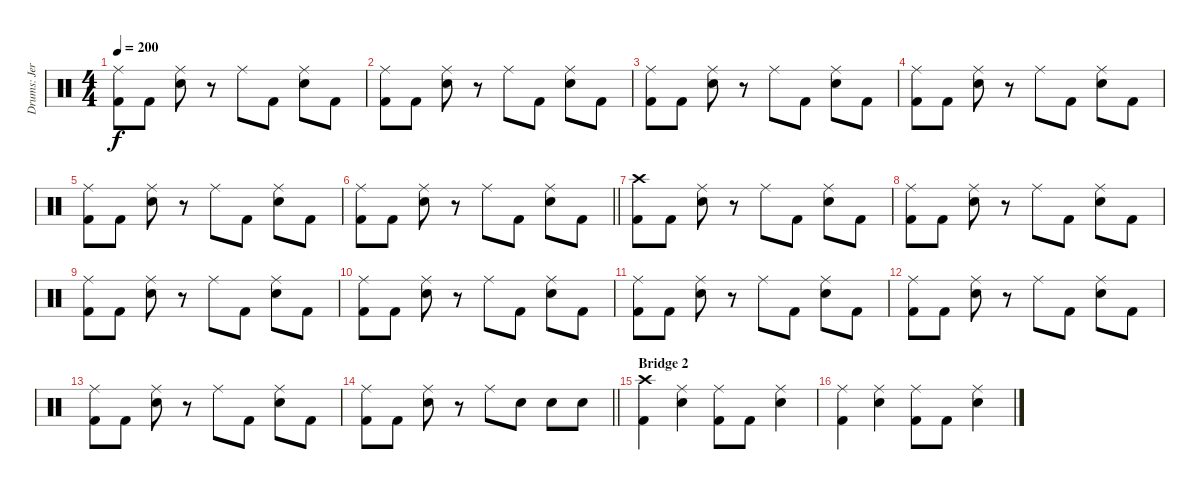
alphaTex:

\track ("Drums: Jere Luokkamäki" "Drums: Jer") {instrument percussion}
\staff {score}
\articulation defaults
\ts (4 4)
\tempo 200
\clef neutral
\ks aminor
("Ride (middle)" "Kick (hit) 2").8{dy f} "Kick (hit) 2".8 ("Ride (middle)" "Electric Snare (hit)").8 r.8 "Ride (middle)".8 "Kick (hit) 2".8 ("Ride (middle)" "Electric Snare (hit)").8 "Kick (hit) 2".8 |
("Ride (middle)" "Kick (hit) 2").8 "Kick (hit) 2".8 ("Ride (middle)" "Electric Snare (hit)").8 r.8 "Ride (middle)".8 "Kick (hit) 2".8 ("Ride (middle)" "Electric Snare (hit)").8 "Kick (hit) 2".8 |
("Ride (middle)" "Kick (hit) 2").8 "Kick (hit) 2".8 ("Ride (middle)" "Electric Snare (hit)").8 r.8 "Ride (middle)".8 "Kick (hit) 2".8 ("Ride (middle)" "Electric Snare (hit)").8 "Kick (hit) 2".8 |
("Ride (middle)" "Kick (hit) 2").8 "Kick (hit) 2".8 ("Ride (middle)" "Electric Snare (hit)").8 r.8 "Ride (middle)".8 "Kick (hit) 2".8 ("Ride (middle)" "Electric Snare (hit)").8 "Kick (hit) 2".8 |
("Ride (middle)" "Kick (hit) 2").8 "Kick (hit) 2".8 ("Ride (middle)" "Electric Snare (hit)").8 r.8 "Ride (middle)".8 "Kick (hit) 2".8 ("Ride (middle)" "Electric Snare (hit)").8 "Kick (hit) 2".8 |
\barLineRight lightlight
("Ride (middle)" "Kick (hit) 2").8 "Kick (hit) 2".8 ("Ride (middle)" "Electric Snare (hit)").8 r.8 "Ride (middle)".8 "Kick (hit) 2".8 ("Ride (middle)" "Electric Snare (hit)").8 "Kick (hit) 2".8 |
("Crash high (hit)" "Kick (hit) 2").8 "Kick (hit) 2".8 ("Ride (middle)" "Electric Snare (hit)").8 r.8 "Ride (middle)".8 "Kick (hit) 2".8 ("Ride (middle)" "Electric Snare (hit)").8 "Kick (hit) 2".8 |
("Ride (middle)" "Kick (hit) 2").8 "Kick (hit) 2".8 ("Ride (middle)" "Electric Snare (hit)").8 r.8 "Ride (middle)".8 "Kick (hit) 2".8 ("Ride (middle)" "Electric Snare (hit)").8 "Kick (hit) 2".8 |
("Ride (middle)" "Kick (hit) 2").8 "Kick (hit) 2".8 ("Ride (middle)" "Electric Snare (hit)").8 r.8 "Ride (middle)".8 "Kick (hit) 2".8 ("Ride (middle)" "Electric Snare (hit)").8 "Kick (hit) 2".8 |
("Ride (middle)" "Kick (hit) 2").8 "Kick (hit) 2".8 ("Ride (middle)" "Electric Snare (hit)").8 r.8 "Ride (middle)".8 "Kick (hit) 2".8 ("Ride (middle)" "Electric Snare (hit)").8 "Kick (hit) 2".8 |
("Ride (middle)" "Kick (hit) 2").8 "Kick (hit) 2".8 ("Ride (middle)" "Electric Snare (hit)").8 r.8 "Ride (middle)".8 "Kick (hit) 2".8 ("Ride (middle)" "Electric Snare (hit)").8 "Kick (hit) 2".8 |
("Ride (middle)" "Kick (hit) 2").8 "Kick (hit) 2".8 ("Ride (middle)" "Electric Snare (hit)").8 r.8 "Ride (middle)".8 "Kick (hit) 2".8 ("Ride (middle)" "Electric Snare (hit)").8 "Kick (hit) 2".8 |
("Ride (middle)" "Kick (hit) 2").8 "Kick (hit) 2".8 ("Ride (middle)" "Electric Snare (hit)").8 r.8 "Ride (middle)".8 "Kick (hit) 2".8 ("Ride (middle)" "Electric Snare (hit)").8 "Kick (hit) 2".8 |
\barLineRight lightlight
("Ride (middle)" "Kick (hit) 2").8 "Kick (hit) 2".8 ("Ride (middle)" "Electric Snare (hit)").8 r.8 "Ride (middle)".8 "Electric Snare (hit)".8 "Electric Snare (hit)".8 "Electric Snare (hit)".8 |
\section ("" "Bridge 2")
("Crash high (hit)" "Kick (hit) 2").4 ("Ride (middle)" "Electric Snare (hit)").4 ("Ride (middle)" "Kick (hit) 2").8 "Kick (hit) 2".8 ("Ride (middle)" "Electric Snare (hit)").4 |
("Ride (middle)" "Kick (hit) 2").4 ("Ride (middle)" "Electric Snare (hit)").4 ("Ride (middle)" "Kick (hit) 2").8 "Kick (hit) 2".8 ("Ride (middle)" "Electric Snare (hit)").4
